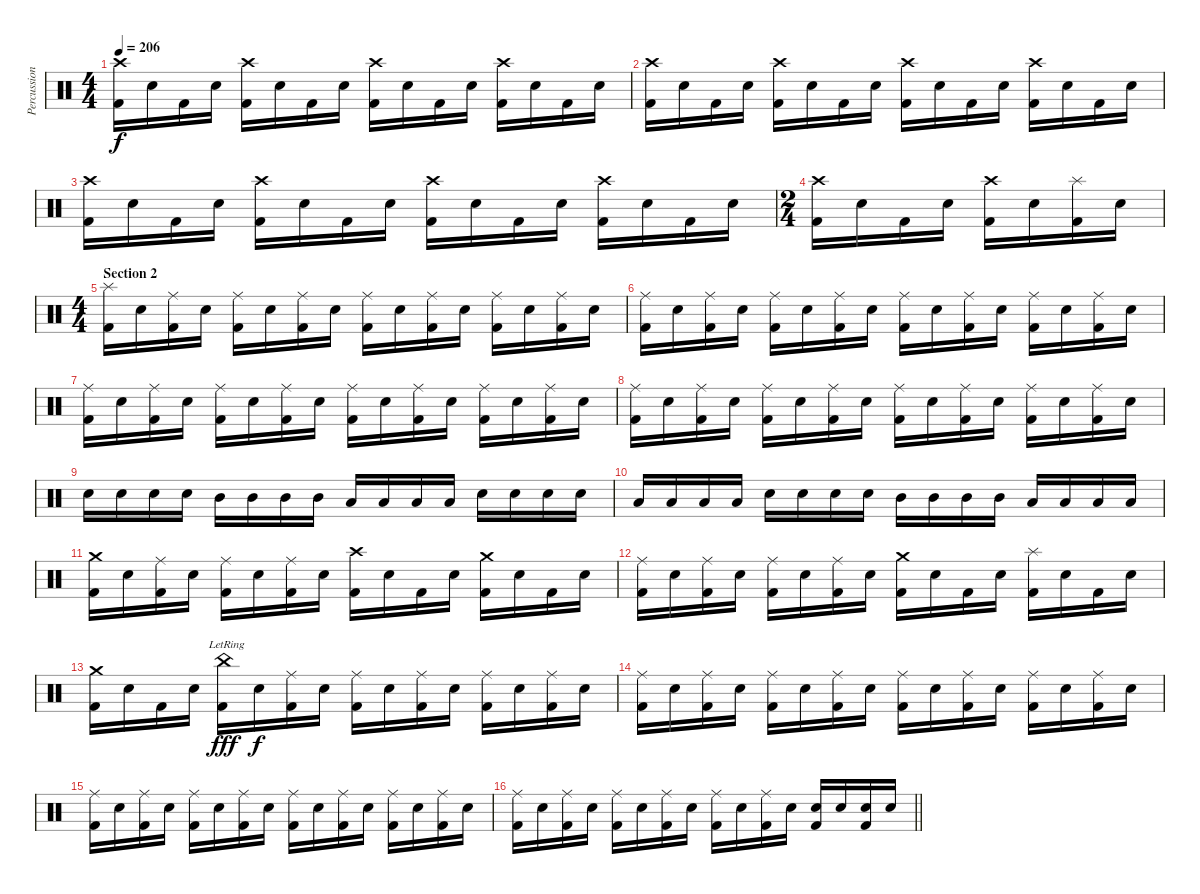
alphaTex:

\track ("Percussion" "Percussion") {instrument percussion}
\staff {score}
\articulation defaults
\ts (4 4)
\tempo 206
\clef neutral
\ks c
("Crash high (hit)" "Kick (hit) 2").16{dy f} "Electric Snare (hit)".16 "Kick (hit) 2".16 "Electric Snare (hit)".16 ("Crash high (hit)" "Kick (hit) 2").16 "Electric Snare (hit)".16 "Kick (hit) 2".16 "Electric Snare (hit)".16 ("Crash high (hit)" "Kick (hit) 2").16 "Electric Snare (hit)".16 "Kick (hit) 2".16 "Electric Snare (hit)".16 ("Crash high (hit)" "Kick (hit) 2").16 "Electric Snare (hit)".16 "Kick (hit) 2".16 "Electric Snare (hit)".16 |
("Crash high (hit)" "Kick (hit) 2").16 "Electric Snare (hit)".16 "Kick (hit) 2".16 "Electric Snare (hit)".16 ("Crash high (hit)" "Kick (hit) 2").16 "Electric Snare (hit)".16 "Kick (hit) 2".16 "Electric Snare (hit)".16 ("Crash high (hit)" "Kick (hit) 2").16 "Electric Snare (hit)".16 "Kick (hit) 2".16 "Electric Snare (hit)".16 ("Crash high (hit)" "Kick (hit) 2").16 "Electric Snare (hit)".16 "Kick (hit) 2".16 "Electric Snare (hit)".16 |
("Crash high (hit)" "Kick (hit) 2").16 "Electric Snare (hit)".16 "Kick (hit) 2".16 "Electric Snare (hit)".16 ("Crash high (hit)" "Kick (hit) 2").16 "Electric Snare (hit)".16 "Kick (hit) 2".16 "Electric Snare (hit)".16 ("Crash high (hit)" "Kick (hit) 2").16 "Electric Snare (hit)".16 "Kick (hit) 2".16 "Electric Snare (hit)".16 ("Crash high (hit)" "Kick (hit) 2").16 "Electric Snare (hit)".16 "Kick (hit) 2".16 "Electric Snare (hit)".16 |
\ts (2 4)
("Crash high (hit)" "Kick (hit) 2").16 "Electric Snare (hit)".16 "Kick (hit) 2".16 "Electric Snare (hit)".16 ("Crash high (hit)" "Kick (hit) 2").16 "Electric Snare (hit)".16 ("Splash (hit)" "Kick (hit) 2").16 "Electric Snare (hit)".16 |
\ts (4 4)
\section ("" "Section 2")
("Splash (hit)" "Kick (hit) 2").16 "Electric Snare (hit)".16 ("Ride (middle)" "Kick (hit) 2").16 "Electric Snare (hit)".16 ("Ride (middle)" "Kick (hit) 2").16 "Electric Snare (hit)".16 ("Ride (middle)" "Kick (hit) 2").16 "Electric Snare (hit)".16 ("Ride (middle)" "Kick (hit) 2").16 "Electric Snare (hit)".16 ("Ride (middle)" "Kick (hit) 2").16 "Electric Snare (hit)".16 ("Ride (middle)" "Kick (hit) 2").16 "Electric Snare (hit)".16 ("Ride (middle)" "Kick (hit) 2").16 "Electric Snare (hit)".16 |
("Ride (middle)" "Kick (hit) 2").16 "Electric Snare (hit)".16 ("Ride (middle)" "Kick (hit) 2").16 "Electric Snare (hit)".16 ("Ride (middle)" "Kick (hit) 2").16 "Electric Snare (hit)".16 ("Ride (middle)" "Kick (hit) 2").16 "Electric Snare (hit)".16 ("Ride (middle)" "Kick (hit) 2").16 "Electric Snare (hit)".16 ("Ride (middle)" "Kick (hit) 2").16 "Electric Snare (hit)".16 ("Ride (middle)" "Kick (hit) 2").16 "Electric Snare (hit)".16 ("Ride (middle)" "Kick (hit) 2").16 "Electric Snare (hit)".16 |
("Ride (middle)" "Kick (hit) 2").16 "Electric Snare (hit)".16 ("Ride (middle)" "Kick (hit) 2").16 "Electric Snare (hit)".16 ("Ride (middle)" "Kick (hit) 2").16 "Electric Snare (hit)".16 ("Ride (middle)" "Kick (hit) 2").16 "Electric Snare (hit)".16 ("Ride (middle)" "Kick (hit) 2").16 "Electric Snare (hit)".16 ("Ride (middle)" "Kick (hit) 2").16 "Electric Snare (hit)".16 ("Ride (middle)" "Kick (hit) 2").16 "Electric Snare (hit)".16 ("Ride (middle)" "Kick (hit) 2").16 "Electric Snare (hit)".16 |
("Ride (middle)" "Kick (hit) 2").16 "Electric Snare (hit)".16 ("Ride (middle)" "Kick (hit) 2").16 "Electric Snare (hit)".16 ("Ride (middle)" "Kick (hit) 2").16 "Electric Snare (hit)".16 ("Ride (middle)" "Kick (hit) 2").16 "Electric Snare (hit)".16 ("Ride (middle)" "Kick (hit) 2").16 "Electric Snare (hit)".16 ("Ride (middle)" "Kick (hit) 2").16 "Electric Snare (hit)".16 ("Ride (middle)" "Kick (hit) 2").16 "Electric Snare (hit)".16 ("Ride (middle)" "Kick (hit) 2").16 "Electric Snare (hit)".16 |
"Electric Snare (hit)".16 "Electric Snare (hit)".16 "Electric Snare (hit)".16 "Electric Snare (hit)".16 "Mid Tom (hit)".16 "Mid Tom (hit)".16 "Mid Tom (hit)".16 "Mid Tom (hit)".16 "Low Tom (hit)".16 "Low Tom (hit)".16 "Low Tom (hit)".16 "Low Tom (hit)".16 "Electric Snare (hit)".16 "Electric Snare (hit)".16 "Electric Snare (hit)".16 "Electric Snare (hit)".16 |
"Low Tom (hit)".16 "Low Tom (hit)".16 "Low Tom (hit)".16 "Low Tom (hit)".16 "Electric Snare (hit)".16 "Electric Snare (hit)".16 "Electric Snare (hit)".16 "Electric Snare (hit)".16 "Mid Tom (hit)".16 "Mid Tom (hit)".16 "Mid Tom (hit)".16 "Mid Tom (hit)".16 "Low Tom (hit)".16 "Low Tom (hit)".16 "Low Tom (hit)".16 "Low Tom (hit)".16 |
("Crash medium (hit)" "Kick (hit) 2").16 "Electric Snare (hit)".16 ("Ride (middle)" "Kick (hit) 2").16 "Electric Snare (hit)".16 ("Ride (middle)" "Kick (hit) 2").16 "Electric Snare (hit)".16 ("Ride (middle)" "Kick (hit) 2").16 "Electric Snare (hit)".16 ("Crash high (hit)" "Kick (hit) 2").16 "Electric Snare (hit)".16 "Kick (hit) 2".16 "Electric Snare (hit)".16 ("Crash medium (hit)" "Kick (hit) 2").16 "Electric Snare (hit)".16 "Kick (hit) 2".16 "Electric Snare (hit)".16 |
("Ride (middle)" "Kick (hit) 2").16 "Electric Snare (hit)".16 ("Ride (middle)" "Kick (hit) 2").16 "Electric Snare (hit)".16 ("Ride (middle)" "Kick (hit) 2").16 "Electric Snare (hit)".16 ("Ride (middle)" "Kick (hit) 2").16 "Electric Snare (hit)".16 ("Crash medium (hit)" "Kick (hit) 2").16 "Electric Snare (hit)".16 "Kick (hit) 2".16 "Electric Snare (hit)".16 ("Splash (hit)" "Kick (hit) 2").16 "Electric Snare (hit)".16 "Kick (hit) 2".16 "Electric Snare (hit)".16 |
("Crash medium (hit)" "Kick (hit) 2").16 "Electric Snare (hit)".16 "Kick (hit) 2".16 "Electric Snare (hit)".16 ("China (hit)"{lr} "Kick (hit) 2").16{dy fff} "Electric Snare (hit)".16{dy f} ("Ride (middle)" "Kick (hit) 2").16 "Electric Snare (hit)".16 ("Ride (middle)" "Kick (hit) 2").16 "Electric Snare (hit)".16 ("Ride (middle)" "Kick (hit) 2").16 "Electric Snare (hit)".16 ("Ride (middle)" "Kick (hit) 2").16 "Electric Snare (hit)".16 ("Ride (middle)" "Kick (hit) 2").16 "Electric Snare (hit)".16 |
("Ride (middle)" "Kick (hit) 2").16 "Electric Snare (hit)".16 ("Ride (middle)" "Kick (hit) 2").16 "Electric Snare (hit)".16 ("Ride (middle)" "Kick (hit) 2").16 "Electric Snare (hit)".16 ("Ride (middle)" "Kick (hit) 2").16 "Electric Snare (hit)".16 ("Ride (middle)" "Kick (hit) 2").16 "Electric Snare (hit)".16 ("Ride (middle)" "Kick (hit) 2").16 "Electric Snare (hit)".16 ("Ride (middle)" "Kick (hit) 2").16 "Electric Snare (hit)".16 ("Ride (middle)" "Kick (hit) 2").16 "Electric Snare (hit)".16 |
("Ride (middle)" "Kick (hit) 2").16 "Electric Snare (hit)".16 ("Ride (middle)" "Kick (hit) 2").16 "Electric Snare (hit)".16 ("Ride (middle)" "Kick (hit) 2").16 "Electric Snare (hit)".16 ("Ride (middle)" "Kick (hit) 2").16 "Electric Snare (hit)".16 ("Ride (middle)" "Kick (hit) 2").16 "Electric Snare (hit)".16 ("Ride (middle)" "Kick (hit) 2").16 "Electric Snare (hit)".16 ("Ride (middle)" "Kick (hit) 2").16 "Electric Snare (hit)".16 ("Ride (middle)" "Kick (hit) 2").16 "Electric Snare (hit)".16 |
\barLineRight lightlight
("Ride (middle)" "Kick (hit) 2").16 "Electric Snare (hit)".16 ("Ride (middle)" "Kick (hit) 2").16 "Electric Snare (hit)".16 ("Ride (middle)" "Kick (hit) 2").16 "Electric Snare (hit)".16 ("Ride (middle)" "Kick (hit) 2").16 "Electric Snare (hit)".16 ("Ride (middle)" "Kick (hit) 2").16 "Electric Snare (hit)".16 ("Ride (middle)" "Kick (hit) 2").16 "Electric Snare (hit)".16 ("Electric Snare (hit)" "Kick (hit) 2").16 "Electric Snare (hit)".16 ("Electric Snare (hit)" "Kick (hit) 2").16 "Electric Snare (hit)".16
